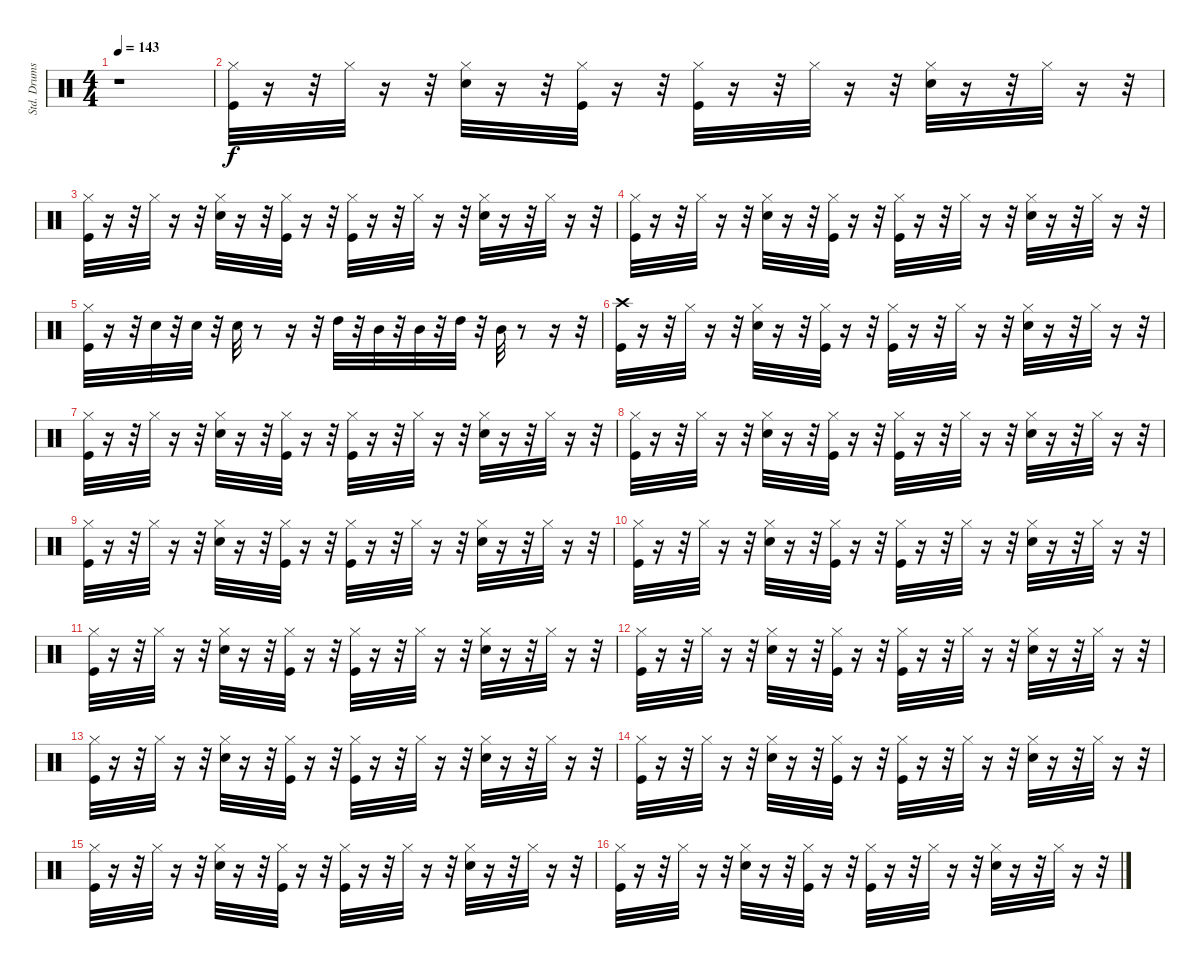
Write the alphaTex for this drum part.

\track ("Std. Drums " "Std. Drums") {instrument percussion}
\staff {score}
\articulation defaults
\ts (4 4)
\tempo 143
\clef neutral
\ks c
r.1{dy f} |
("Hi-Hat (closed)" "Kick (hit)").32 r.16 r.32 "Hi-Hat (closed)".32 r.16 r.32 ("Hi-Hat (closed)" "Snare (hit) 2").32 r.16 r.32 ("Hi-Hat (closed)" "Kick (hit)").32 r.16 r.32 ("Hi-Hat (closed)" "Kick (hit)").32 r.16 r.32 "Hi-Hat (closed)".32 r.16 r.32 ("Hi-Hat (closed)" "Snare (hit) 2").32 r.16 r.32 "Hi-Hat (closed)".32 r.16 r.32 |
("Hi-Hat (closed)" "Kick (hit)").32 r.16 r.32 "Hi-Hat (closed)".32 r.16 r.32 ("Hi-Hat (closed)" "Snare (hit) 2").32 r.16 r.32 ("Hi-Hat (closed)" "Kick (hit)").32 r.16 r.32 ("Hi-Hat (closed)" "Kick (hit)").32 r.16 r.32 "Hi-Hat (closed)".32 r.16 r.32 ("Hi-Hat (closed)" "Snare (hit) 2").32 r.16 r.32 "Hi-Hat (closed)".32 r.16 r.32 |
("Hi-Hat (closed)" "Kick (hit)").32 r.16 r.32 "Hi-Hat (closed)".32 r.16 r.32 ("Hi-Hat (closed)" "Snare (hit) 2").32 r.16 r.32 ("Hi-Hat (closed)" "Kick (hit)").32 r.16 r.32 ("Hi-Hat (closed)" "Kick (hit)").32 r.16 r.32 "Hi-Hat (closed)".32 r.16 r.32 ("Hi-Hat (closed)" "Snare (hit) 2").32 r.16 r.32 "Hi-Hat (closed)".32 r.16 r.32 |
("Hi-Hat (closed)" "Kick (hit)").32 r.16 r.32 "Snare (hit) 2".32 r.32 "Snare (hit) 2".32 r.32 "Snare (hit) 2".32 r.8 r.16 r.32 "High Tom (hit)".32 r.32 "Mid Tom (hit)".32 r.32 "Mid Tom (hit)".32 r.32 "High Tom (hit)".32 r.32 "Mid Tom (hit)".32 r.8 r.16 r.32 |
("Kick (hit)" "Crash high (hit)").32 r.16 r.32 "Hi-Hat (closed)".32 r.16 r.32 ("Hi-Hat (closed)" "Snare (hit) 2").32 r.16 r.32 ("Hi-Hat (closed)" "Kick (hit)").32 r.16 r.32 ("Hi-Hat (closed)" "Kick (hit)").32 r.16 r.32 "Hi-Hat (closed)".32 r.16 r.32 ("Hi-Hat (closed)" "Snare (hit) 2").32 r.16 r.32 "Hi-Hat (closed)".32 r.16 r.32 |
("Hi-Hat (closed)" "Kick (hit)").32 r.16 r.32 "Hi-Hat (closed)".32 r.16 r.32 ("Hi-Hat (closed)" "Snare (hit) 2").32 r.16 r.32 ("Hi-Hat (closed)" "Kick (hit)").32 r.16 r.32 ("Hi-Hat (closed)" "Kick (hit)").32 r.16 r.32 "Hi-Hat (closed)".32 r.16 r.32 ("Hi-Hat (closed)" "Snare (hit) 2").32 r.16 r.32 "Hi-Hat (closed)".32 r.16 r.32 |
("Hi-Hat (closed)" "Kick (hit)").32 r.16 r.32 "Hi-Hat (closed)".32 r.16 r.32 ("Hi-Hat (closed)" "Snare (hit) 2").32 r.16 r.32 ("Hi-Hat (closed)" "Kick (hit)").32 r.16 r.32 ("Hi-Hat (closed)" "Kick (hit)").32 r.16 r.32 "Hi-Hat (closed)".32 r.16 r.32 ("Hi-Hat (closed)" "Snare (hit) 2").32 r.16 r.32 "Hi-Hat (closed)".32 r.16 r.32 |
("Hi-Hat (closed)" "Kick (hit)").32 r.16 r.32 "Hi-Hat (closed)".32 r.16 r.32 ("Hi-Hat (closed)" "Snare (hit) 2").32 r.16 r.32 ("Hi-Hat (closed)" "Kick (hit)").32 r.16 r.32 ("Hi-Hat (closed)" "Kick (hit)").32 r.16 r.32 "Hi-Hat (closed)".32 r.16 r.32 ("Hi-Hat (closed)" "Snare (hit) 2").32 r.16 r.32 "Hi-Hat (closed)".32 r.16 r.32 |
("Hi-Hat (closed)" "Kick (hit)").32 r.16 r.32 "Hi-Hat (closed)".32 r.16 r.32 ("Hi-Hat (closed)" "Snare (hit) 2").32 r.16 r.32 ("Hi-Hat (closed)" "Kick (hit)").32 r.16 r.32 ("Hi-Hat (closed)" "Kick (hit)").32 r.16 r.32 "Hi-Hat (closed)".32 r.16 r.32 ("Hi-Hat (closed)" "Snare (hit) 2").32 r.16 r.32 "Hi-Hat (closed)".32 r.16 r.32 |
("Hi-Hat (closed)" "Kick (hit)").32 r.16 r.32 "Hi-Hat (closed)".32 r.16 r.32 ("Hi-Hat (closed)" "Snare (hit) 2").32 r.16 r.32 ("Hi-Hat (closed)" "Kick (hit)").32 r.16 r.32 ("Hi-Hat (closed)" "Kick (hit)").32 r.16 r.32 "Hi-Hat (closed)".32 r.16 r.32 ("Hi-Hat (closed)" "Snare (hit) 2").32 r.16 r.32 "Hi-Hat (closed)".32 r.16 r.32 |
("Hi-Hat (closed)" "Kick (hit)").32 r.16 r.32 "Hi-Hat (closed)".32 r.16 r.32 ("Hi-Hat (closed)" "Snare (hit) 2").32 r.16 r.32 ("Hi-Hat (closed)" "Kick (hit)").32 r.16 r.32 ("Hi-Hat (closed)" "Kick (hit)").32 r.16 r.32 "Hi-Hat (closed)".32 r.16 r.32 ("Hi-Hat (closed)" "Snare (hit) 2").32 r.16 r.32 "Hi-Hat (closed)".32 r.16 r.32 |
("Hi-Hat (closed)" "Kick (hit)").32 r.16 r.32 "Hi-Hat (closed)".32 r.16 r.32 ("Hi-Hat (closed)" "Snare (hit) 2").32 r.16 r.32 ("Hi-Hat (closed)" "Kick (hit)").32 r.16 r.32 ("Hi-Hat (closed)" "Kick (hit)").32 r.16 r.32 "Hi-Hat (closed)".32 r.16 r.32 ("Hi-Hat (closed)" "Snare (hit) 2").32 r.16 r.32 "Hi-Hat (closed)".32 r.16 r.32 |
("Hi-Hat (closed)" "Kick (hit)").32 r.16 r.32 "Hi-Hat (closed)".32 r.16 r.32 ("Hi-Hat (closed)" "Snare (hit) 2").32 r.16 r.32 ("Hi-Hat (closed)" "Kick (hit)").32 r.16 r.32 ("Hi-Hat (closed)" "Kick (hit)").32 r.16 r.32 "Hi-Hat (closed)".32 r.16 r.32 ("Hi-Hat (closed)" "Snare (hit) 2").32 r.16 r.32 "Hi-Hat (closed)".32 r.16 r.32 |
("Hi-Hat (closed)" "Kick (hit)").32 r.16 r.32 "Hi-Hat (closed)".32 r.16 r.32 ("Hi-Hat (closed)" "Snare (hit) 2").32 r.16 r.32 ("Hi-Hat (closed)" "Kick (hit)").32 r.16 r.32 ("Hi-Hat (closed)" "Kick (hit)").32 r.16 r.32 "Hi-Hat (closed)".32 r.16 r.32 ("Hi-Hat (closed)" "Snare (hit) 2").32 r.16 r.32 "Hi-Hat (closed)".32 r.16 r.32 |
("Hi-Hat (closed)" "Kick (hit)").32 r.16 r.32 "Hi-Hat (closed)".32 r.16 r.32 ("Hi-Hat (closed)" "Snare (hit) 2").32 r.16 r.32 ("Hi-Hat (closed)" "Kick (hit)").32 r.16 r.32 ("Hi-Hat (closed)" "Kick (hit)").32 r.16 r.32 "Hi-Hat (closed)".32 r.16 r.32 ("Hi-Hat (closed)" "Snare (hit) 2").32 r.16 r.32 "Hi-Hat (closed)".32 r.16 r.32
